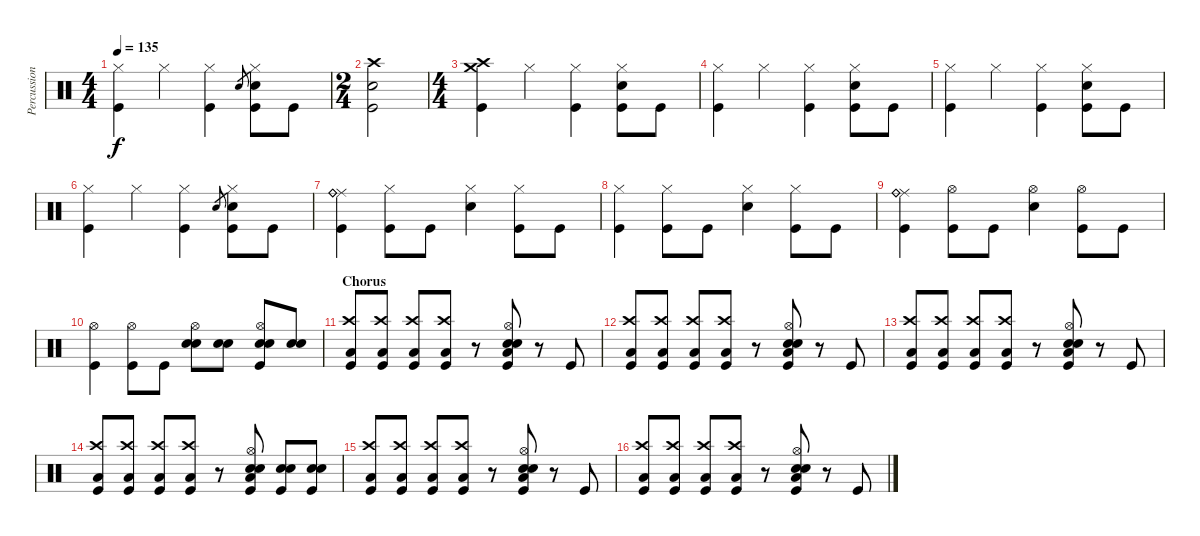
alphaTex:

\track ("Percussions" "Percussion") {instrument percussion}
\staff {score}
\articulation defaults
\ts (4 4)
\tempo 135
\clef neutral
\ks c
("Hi-Hat (closed)" "Kick (hit)").4{dy f} "Hi-Hat (closed)".4 ("Hi-Hat (closed)" "Kick (hit)").4 "Electric Snare (hit)".8{gr} ("Hi-Hat (closed)" "Electric Snare (hit)" "Kick (hit)").8 "Kick (hit)".8 |
\ts (2 4)
("Crash high (hit)" "Electric Snare (hit)" "Kick (hit)").2 |
\ts (4 4)
("Crash high (hit)" "Crash medium (hit)" "Kick (hit)").4 "Hi-Hat (closed)".4 ("Hi-Hat (closed)" "Kick (hit)").4 ("Hi-Hat (closed)" "Electric Snare (hit)" "Kick (hit)").8 "Kick (hit)".8 |
("Hi-Hat (closed)" "Kick (hit)").4 "Hi-Hat (closed)".4 ("Hi-Hat (closed)" "Kick (hit)").4 ("Hi-Hat (closed)" "Electric Snare (hit)" "Kick (hit)").8 "Kick (hit)".8 |
("Hi-Hat (closed)" "Kick (hit)").4 "Hi-Hat (closed)".4 ("Hi-Hat (closed)" "Kick (hit)").4 ("Hi-Hat (closed)" "Electric Snare (hit)" "Kick (hit)").8 "Kick (hit)".8 |
("Hi-Hat (closed)" "Kick (hit)").4 "Hi-Hat (closed)".4 ("Hi-Hat (closed)" "Kick (hit)").4 "Electric Snare (hit)".8{gr} ("Hi-Hat (closed)" "Electric Snare (hit)" "Kick (hit)").8 "Kick (hit)".8 |
("Ride (middle)" "Ride (bell)" "Ride (bell)" "Kick (hit)").4 ("Hi-Hat (closed)" "Kick (hit)").8 "Kick (hit)".8 ("Hi-Hat (closed)" "Electric Snare (hit)").4 ("Hi-Hat (closed)" "Kick (hit)").8 "Kick (hit)".8 |
("Hi-Hat (closed)" "Kick (hit)").4 ("Hi-Hat (closed)" "Kick (hit)").8 "Kick (hit)".8 ("Hi-Hat (closed)" "Electric Snare (hit)").4 ("Hi-Hat (closed)" "Kick (hit)").8 "Kick (hit)".8 |
("Ride (middle)" "Ride (bell)" "Ride (bell)" "Kick (hit)").4 ("Hi-Hat (open)" "Kick (hit)").8 "Kick (hit)".8 ("Hi-Hat (open)" "Electric Snare (hit)").4 ("Hi-Hat (open)" "Kick (hit)").8 "Kick (hit)".8 |
("Hi-Hat (open)" "Kick (hit)").4 ("Hi-Hat (open)" "Kick (hit)").8 "Kick (hit)".8 ("Hi-Hat (open)" "Electric Snare (hit)" "Snare (hit) 2").8 ("Electric Snare (hit)" "Snare (hit) 2").8 ("Hi-Hat (open)" "Electric Snare (hit)" "Snare (hit) 2" "Kick (hit)").8 ("Electric Snare (hit)" "Snare (hit) 2").8 |
\section ("" "Chorus")
("Crash high (hit)" "Low Floor Tom (hit)" "Kick (hit)").8 ("Crash high (hit)" "Low Floor Tom (hit)" "Kick (hit)").8 ("Crash high (hit)" "Low Floor Tom (hit)" "Kick (hit)").8 ("Crash high (hit)" "Low Floor Tom (hit)" "Kick (hit)").8 r.8 ("Hi-Hat (open)" "Electric Snare (hit)" "Snare (hit) 2" "Low Floor Tom (hit)" "Kick (hit)").8 r.8 "Kick (hit)".8 |
("Crash high (hit)" "Low Floor Tom (hit)" "Kick (hit)").8 ("Crash high (hit)" "Low Floor Tom (hit)" "Kick (hit)").8 ("Crash high (hit)" "Low Floor Tom (hit)" "Kick (hit)").8 ("Crash high (hit)" "Low Floor Tom (hit)" "Kick (hit)").8 r.8 ("Hi-Hat (open)" "Electric Snare (hit)" "Snare (hit) 2" "Low Floor Tom (hit)" "Kick (hit)").8 r.8 "Kick (hit)".8 |
("Crash high (hit)" "Low Floor Tom (hit)" "Kick (hit)").8 ("Crash high (hit)" "Low Floor Tom (hit)" "Kick (hit)").8 ("Crash high (hit)" "Low Floor Tom (hit)" "Kick (hit)").8 ("Crash high (hit)" "Low Floor Tom (hit)" "Kick (hit)").8 r.8 ("Hi-Hat (open)" "Electric Snare (hit)" "Snare (hit) 2" "Low Floor Tom (hit)" "Kick (hit)").8 r.8 "Kick (hit)".8 |
("Crash high (hit)" "Low Floor Tom (hit)" "Kick (hit)").8 ("Crash high (hit)" "Low Floor Tom (hit)" "Kick (hit)").8 ("Crash high (hit)" "Low Floor Tom (hit)" "Kick (hit)").8 ("Crash high (hit)" "Low Floor Tom (hit)" "Kick (hit)").8 r.8 ("Hi-Hat (open)" "Electric Snare (hit)" "Snare (hit) 2" "Low Floor Tom (hit)" "Kick (hit)").8 ("Electric Snare (hit)" "Snare (hit) 2" "Kick (hit)").8 ("Electric Snare (hit)" "Snare (hit) 2" "Kick (hit)").8 |
("Crash high (hit)" "Low Floor Tom (hit)" "Kick (hit)").8 ("Crash high (hit)" "Low Floor Tom (hit)" "Kick (hit)").8 ("Crash high (hit)" "Low Floor Tom (hit)" "Kick (hit)").8 ("Crash high (hit)" "Low Floor Tom (hit)" "Kick (hit)").8 r.8 ("Hi-Hat (open)" "Electric Snare (hit)" "Snare (hit) 2" "Low Floor Tom (hit)" "Kick (hit)").8 r.8 "Kick (hit)".8 |
("Crash high (hit)" "Low Floor Tom (hit)" "Kick (hit)").8 ("Crash high (hit)" "Low Floor Tom (hit)" "Kick (hit)").8 ("Crash high (hit)" "Low Floor Tom (hit)" "Kick (hit)").8 ("Crash high (hit)" "Low Floor Tom (hit)" "Kick (hit)").8 r.8 ("Hi-Hat (open)" "Electric Snare (hit)" "Snare (hit) 2" "Low Floor Tom (hit)" "Kick (hit)").8 r.8 "Kick (hit)".8
